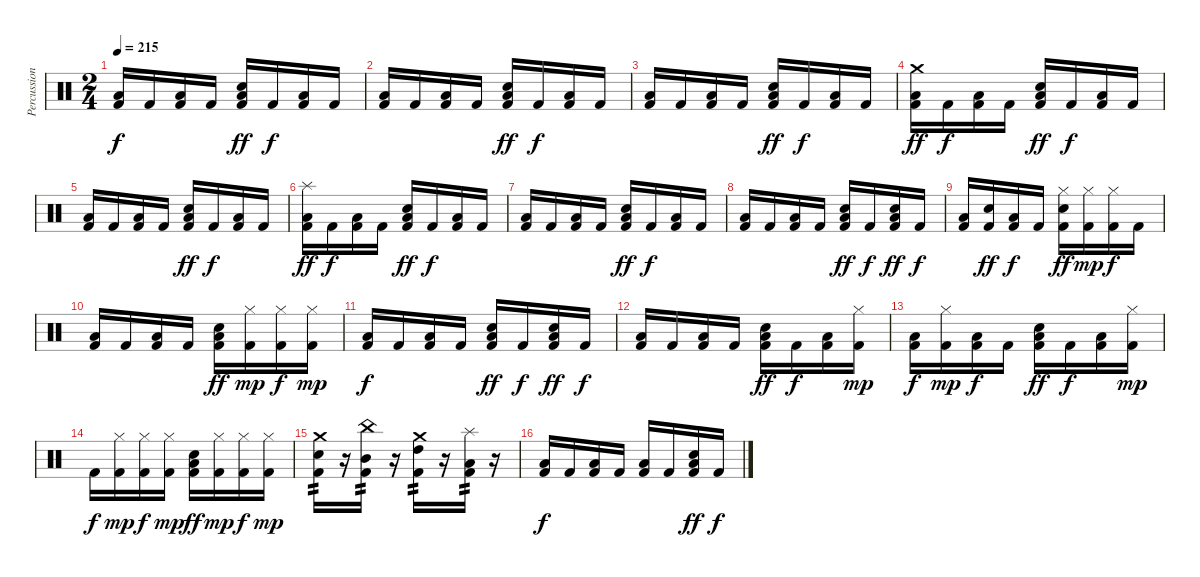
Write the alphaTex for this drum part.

\track ("Percussion" "Percussion") {instrument percussion}
\staff {score}
\articulation defaults
\ts (2 4)
\tempo 215
\clef neutral
\ks c
("Kick (hit) 2" "Low Tom (hit)").16{dy f} "Kick (hit) 2".16 ("Kick (hit) 2" "Low Tom (hit)").16 "Kick (hit) 2".16 ("Kick (hit) 2" "Snare (hit) 2" "Low Tom (hit)").16{dy ff} "Kick (hit) 2".16{dy f} ("Kick (hit) 2" "Low Tom (hit)").16 "Kick (hit) 2".16 |
("Kick (hit) 2" "Low Tom (hit)").16 "Kick (hit) 2".16 ("Kick (hit) 2" "Low Tom (hit)").16 "Kick (hit) 2".16 ("Kick (hit) 2" "Snare (hit) 2" "Low Tom (hit)").16{dy ff} "Kick (hit) 2".16{dy f} ("Kick (hit) 2" "Low Tom (hit)").16 "Kick (hit) 2".16 |
("Kick (hit) 2" "Low Tom (hit)").16 "Kick (hit) 2".16 ("Kick (hit) 2" "Low Tom (hit)").16 "Kick (hit) 2".16 ("Kick (hit) 2" "Snare (hit) 2" "Low Tom (hit)").16{dy ff} "Kick (hit) 2".16{dy f} ("Kick (hit) 2" "Low Tom (hit)").16 "Kick (hit) 2".16 |
("Kick (hit) 2" "Crash medium (hit)" "Low Tom (hit)").16{dy ff} "Kick (hit) 2".16{dy f} ("Kick (hit) 2" "Low Tom (hit)").16 "Kick (hit) 2".16 ("Kick (hit) 2" "Snare (hit) 2" "Low Tom (hit)").16{dy ff} "Kick (hit) 2".16{dy f} ("Kick (hit) 2" "Low Tom (hit)").16 "Kick (hit) 2".16 |
("Kick (hit) 2" "Low Tom (hit)").16 "Kick (hit) 2".16 ("Kick (hit) 2" "Low Tom (hit)").16 "Kick (hit) 2".16 ("Kick (hit) 2" "Snare (hit) 2" "Low Tom (hit)").16{dy ff} "Kick (hit) 2".16{dy f} ("Kick (hit) 2" "Low Tom (hit)").16 "Kick (hit) 2".16 |
("Kick (hit) 2" "Splash (hit)" "Low Tom (hit)").16{dy ff} "Kick (hit) 2".16{dy f} ("Kick (hit) 2" "Low Tom (hit)").16 "Kick (hit) 2".16 ("Kick (hit) 2" "Snare (hit) 2" "Low Tom (hit)").16{dy ff} "Kick (hit) 2".16{dy f} ("Kick (hit) 2" "Low Tom (hit)").16 "Kick (hit) 2".16 |
("Kick (hit) 2" "Low Tom (hit)").16 "Kick (hit) 2".16 ("Kick (hit) 2" "Low Tom (hit)").16 "Kick (hit) 2".16 ("Kick (hit) 2" "Snare (hit) 2" "Low Tom (hit)").16{dy ff} "Kick (hit) 2".16{dy f} ("Kick (hit) 2" "Low Tom (hit)").16 "Kick (hit) 2".16 |
("Kick (hit) 2" "Low Tom (hit)").16 "Kick (hit) 2".16 ("Kick (hit) 2" "Low Tom (hit)").16 "Kick (hit) 2".16 ("Kick (hit) 2" "Snare (hit) 2" "Low Tom (hit)").16{dy ff} "Kick (hit) 2".16{dy f} ("Kick (hit) 2" "Snare (hit) 2" "Low Tom (hit)").16{dy ff} "Kick (hit) 2".16{dy f} |
("Kick (hit) 2" "Low Tom (hit)").16 ("Kick (hit) 2" "Snare (hit) 2").16{dy ff} ("Kick (hit) 2" "Low Tom (hit)").16{dy f} "Kick (hit) 2".16 ("Kick (hit) 2" "Snare (hit) 2" "Hi-Hat (closed)").16{dy ff} ("Kick (hit) 2" "Hi-Hat (closed)").16{dy mp} ("Kick (hit) 2" "Hi-Hat (closed)").16{dy f} "Kick (hit) 2".16 |
("Kick (hit) 2" "Low Tom (hit)").16 "Kick (hit) 2".16 ("Kick (hit) 2" "Low Tom (hit)").16 "Kick (hit) 2".16 ("Kick (hit) 2" "Snare (hit) 2" "Low Tom (hit)").16{dy ff} ("Kick (hit) 2" "Hi-Hat (closed)").16{dy mp} ("Kick (hit) 2" "Hi-Hat (closed)").16{dy f} ("Kick (hit) 2" "Hi-Hat (closed)").16{dy mp} |
("Kick (hit) 2" "Low Tom (hit)").16{dy f} "Kick (hit) 2".16 ("Kick (hit) 2" "Low Tom (hit)").16 "Kick (hit) 2".16 ("Kick (hit) 2" "Snare (hit) 2" "Low Tom (hit)").16{dy ff} "Kick (hit) 2".16{dy f} ("Kick (hit) 2" "Snare (hit) 2" "Low Tom (hit)").16{dy ff} "Kick (hit) 2".16{dy f} |
("Kick (hit) 2" "Low Tom (hit)").16 "Kick (hit) 2".16 ("Kick (hit) 2" "Low Tom (hit)").16 "Kick (hit) 2".16 ("Kick (hit) 2" "Snare (hit) 2" "Low Tom (hit)").16{dy ff} "Kick (hit) 2".16{dy f} ("Kick (hit) 2" "Low Tom (hit)").16 ("Kick (hit) 2" "Hi-Hat (closed)").16{dy mp} |
("Kick (hit) 2" "Low Tom (hit)").16{dy f} ("Kick (hit) 2" "Hi-Hat (closed)").16{dy mp} ("Kick (hit) 2" "Low Tom (hit)").16{dy f} "Kick (hit) 2".16 ("Kick (hit) 2" "Snare (hit) 2" "Low Tom (hit)").16{dy ff} "Kick (hit) 2".16{dy f} ("Kick (hit) 2" "Low Tom (hit)").16 ("Kick (hit) 2" "Hi-Hat (closed)").16{dy mp} |
"Kick (hit) 2".16{dy f} ("Kick (hit) 2" "Hi-Hat (closed)").16{dy mp} ("Kick (hit) 2" "Hi-Hat (closed)").16{dy f} ("Kick (hit) 2" "Hi-Hat (closed)").16{dy mp} ("Kick (hit) 2" "Snare (hit) 2" "Low Tom (hit)").16{dy ff} ("Kick (hit) 2" "Hi-Hat (closed)").16{dy mp} ("Kick (hit) 2" "Hi-Hat (closed)").16{dy f} ("Kick (hit) 2" "Hi-Hat (closed)").16{dy mp} |
("Kick (hit) 2" "Snare (hit) 2" "Crash medium (hit)").16{tp 2} r.16 ("Kick (hit) 2" "Mid Tom (hit)" "China (hit)").16{tp 2} r.16 ("Kick (hit) 2" "High Tom (hit)" "Crash medium (hit)").16{tp 2} r.16 ("Kick (hit) 2" "Low Tom (hit)" "Splash (hit)").16{tp 2} r.16 |
("Kick (hit) 2" "Low Tom (hit)").16{dy f} "Kick (hit) 2".16 ("Kick (hit) 2" "Low Tom (hit)").16 "Kick (hit) 2".16 ("Kick (hit) 2" "Low Tom (hit)").16 "Kick (hit) 2".16 ("Kick (hit) 2" "Snare (hit) 2" "Low Tom (hit)").16{dy ff} "Kick (hit) 2".16{dy f}
